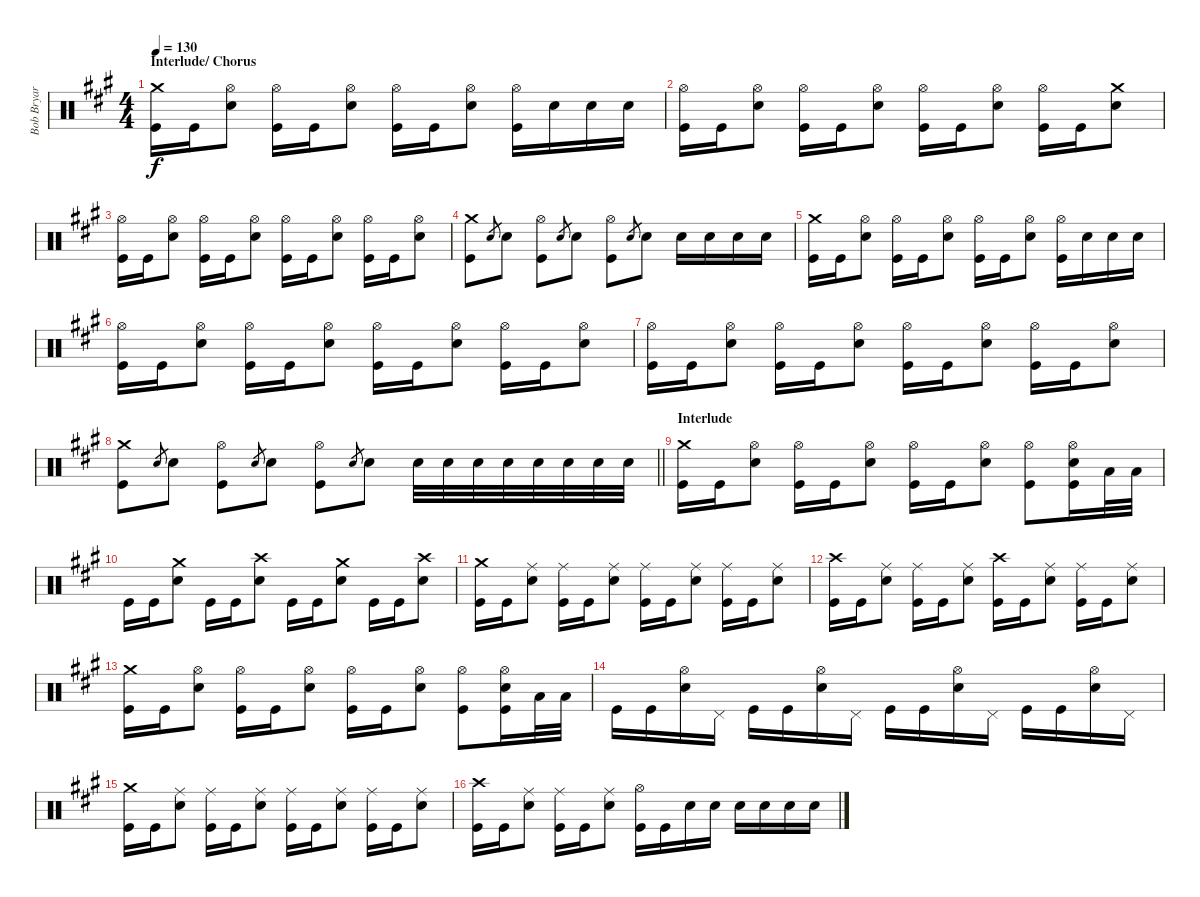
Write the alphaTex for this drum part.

\track ("Bob Bryar" "Bob Bryar") {instrument percussion}
\staff {score}
\articulation defaults
\ts (4 4)
\section ("" "Interlude/ Chorus")
\tempo 130
\clef neutral
\ks a
("Crash medium (hit)" "Kick (hit)").16{dy f} "Kick (hit)".16 ("Hi-Hat (open)" "Snare (hit) 2").8 ("Hi-Hat (open)" "Kick (hit)").16 "Kick (hit)".16 ("Hi-Hat (open)" "Snare (hit) 2").8 ("Hi-Hat (open)" "Kick (hit)").16 "Kick (hit)".16 ("Hi-Hat (open)" "Snare (hit) 2").8 ("Hi-Hat (open)" "Kick (hit)").16 "Snare (hit) 2".16 "Snare (hit) 2".16 "Snare (hit) 2".16 |
("Hi-Hat (open)" "Kick (hit)").16 "Kick (hit)".16 ("Hi-Hat (open)" "Snare (hit) 2").8 ("Hi-Hat (open)" "Kick (hit)").16 "Kick (hit)".16 ("Hi-Hat (open)" "Snare (hit) 2").8 ("Hi-Hat (open)" "Kick (hit)").16 "Kick (hit)".16 ("Hi-Hat (open)" "Snare (hit) 2").8 ("Hi-Hat (open)" "Kick (hit)").16 "Kick (hit)".16 ("Crash medium (hit)" "Snare (hit) 2").8 |
("Hi-Hat (open)" "Kick (hit)").16 "Kick (hit)".16 ("Hi-Hat (open)" "Snare (hit) 2").8 ("Hi-Hat (open)" "Kick (hit)").16 "Kick (hit)".16 ("Hi-Hat (open)" "Snare (hit) 2").8 ("Hi-Hat (open)" "Kick (hit)").16 "Kick (hit)".16 ("Hi-Hat (open)" "Snare (hit) 2").8 ("Hi-Hat (open)" "Kick (hit)").16 "Kick (hit)".16 ("Hi-Hat (open)" "Snare (hit) 2").8 |
("Crash medium (hit)" "Kick (hit)").8 "Snare (hit) 2".8{gr} "Snare (hit) 2".8 ("Hi-Hat (open)" "Kick (hit)").8 "Snare (hit) 2".8{gr} "Snare (hit) 2".8 ("Hi-Hat (open)" "Kick (hit)").8 "Snare (hit) 2".8{gr} "Snare (hit) 2".8 "Snare (hit) 2".16 "Snare (hit) 2".16 "Snare (hit) 2".16 "Snare (hit) 2".16 |
("Crash medium (hit)" "Kick (hit)").16 "Kick (hit)".16 ("Hi-Hat (open)" "Snare (hit) 2").8 ("Hi-Hat (open)" "Kick (hit)").16 "Kick (hit)".16 ("Hi-Hat (open)" "Snare (hit) 2").8 ("Hi-Hat (open)" "Kick (hit)").16 "Kick (hit)".16 ("Hi-Hat (open)" "Snare (hit) 2").8 ("Hi-Hat (open)" "Kick (hit)").16 "Snare (hit) 2".16 "Snare (hit) 2".16 "Snare (hit) 2".16 |
("Hi-Hat (open)" "Kick (hit)").16 "Kick (hit)".16 ("Hi-Hat (open)" "Snare (hit) 2").8 ("Hi-Hat (open)" "Kick (hit)").16 "Kick (hit)".16 ("Hi-Hat (open)" "Snare (hit) 2").8 ("Hi-Hat (open)" "Kick (hit)").16 "Kick (hit)".16 ("Hi-Hat (open)" "Snare (hit) 2").8 ("Hi-Hat (open)" "Kick (hit)").16 "Kick (hit)".16 ("Hi-Hat (open)" "Snare (hit) 2").8 |
("Hi-Hat (open)" "Kick (hit)").16 "Kick (hit)".16 ("Hi-Hat (open)" "Snare (hit) 2").8 ("Hi-Hat (open)" "Kick (hit)").16 "Kick (hit)".16 ("Hi-Hat (open)" "Snare (hit) 2").8 ("Hi-Hat (open)" "Kick (hit)").16 "Kick (hit)".16 ("Hi-Hat (open)" "Snare (hit) 2").8 ("Hi-Hat (open)" "Kick (hit)").16 "Kick (hit)".16 ("Hi-Hat (open)" "Snare (hit) 2").8 |
\barLineRight lightlight
("Crash medium (hit)" "Kick (hit)").8 "Snare (hit) 2".8{gr} "Snare (hit) 2".8 ("Hi-Hat (open)" "Kick (hit)").8 "Snare (hit) 2".8{gr} "Snare (hit) 2".8 ("Hi-Hat (open)" "Kick (hit)").8 "Snare (hit) 2".8{gr} "Snare (hit) 2".8 "Snare (hit) 2".32 "Snare (hit) 2".32 "Snare (hit) 2".32 "Snare (hit) 2".32 "Snare (hit) 2".32 "Snare (hit) 2".32 "Snare (hit) 2".32 "Snare (hit) 2".32 |
\section ("" "Interlude")
("Crash medium (hit)" "Kick (hit)").16 "Kick (hit)".16 ("Hi-Hat (open)" "Snare (hit) 2").8 ("Hi-Hat (open)" "Kick (hit)").16 "Kick (hit)".16 ("Hi-Hat (open)" "Snare (hit) 2").8 ("Hi-Hat (open)" "Kick (hit)").16 "Kick (hit)".16 ("Hi-Hat (open)" "Snare (hit) 2").8 ("Hi-Hat (open)" "Kick (hit)").8 ("Hi-Hat (open)" "Snare (hit) 2" "Kick (hit)").16 "Low Tom (hit)".32 "Low Tom (hit)".32 |
"Kick (hit)".16 "Kick (hit)".16 ("Crash medium (hit)" "Snare (hit) 2").8 "Kick (hit)".16 "Kick (hit)".16 ("Crash high (hit)" "Snare (hit) 2").8 "Kick (hit)".16 "Kick (hit)".16 ("Crash medium (hit)" "Snare (hit) 2").8 "Kick (hit)".16 "Kick (hit)".16 ("Crash high (hit)" "Snare (hit) 2").8 |
("Crash medium (hit)" "Kick (hit)").16 "Kick (hit)".16 ("Ride (middle)" "Snare (hit) 2").8 ("Ride (middle)" "Kick (hit)").16 "Kick (hit)".16 ("Ride (middle)" "Snare (hit) 2").8 ("Ride (middle)" "Kick (hit)").16 "Kick (hit)".16 ("Ride (middle)" "Snare (hit) 2").8 ("Ride (middle)" "Kick (hit)").16 "Kick (hit)".16 ("Ride (middle)" "Snare (hit) 2").8 |
("Crash high (hit)" "Kick (hit)").16 "Kick (hit)".16 ("Ride (middle)" "Snare (hit) 2").8 ("Ride (middle)" "Kick (hit)").16 "Kick (hit)".16 ("Ride (middle)" "Snare (hit) 2").8 ("Crash high (hit)" "Kick (hit)").16 "Kick (hit)".16 ("Ride (middle)" "Snare (hit) 2").8 ("Ride (middle)" "Kick (hit)").16 "Kick (hit)".16 ("Ride (middle)" "Snare (hit) 2").8 |
("Crash medium (hit)" "Kick (hit)").16 "Kick (hit)".16 ("Hi-Hat (open)" "Snare (hit) 2").8 ("Hi-Hat (open)" "Kick (hit)").16 "Kick (hit)".16 ("Hi-Hat (open)" "Snare (hit) 2").8 ("Hi-Hat (open)" "Kick (hit)").16 "Kick (hit)".16 ("Hi-Hat (open)" "Snare (hit) 2").8 ("Hi-Hat (open)" "Kick (hit)").8 ("Hi-Hat (open)" "Snare (hit) 2" "Kick (hit)").16 "Low Tom (hit)".32 "Low Tom (hit)".32 |
"Kick (hit)".16 "Kick (hit)".16 ("Hi-Hat (open)" "Snare (hit) 2").16 "Pedal Hi-Hat (hit)".16 "Kick (hit)".16 "Kick (hit)".16 ("Hi-Hat (open)" "Snare (hit) 2").16 "Pedal Hi-Hat (hit)".16 "Kick (hit)".16 "Kick (hit)".16 ("Hi-Hat (open)" "Snare (hit) 2").16 "Pedal Hi-Hat (hit)".16 "Kick (hit)".16 "Kick (hit)".16 ("Hi-Hat (open)" "Snare (hit) 2").16 "Pedal Hi-Hat (hit)".16 |
("Crash medium (hit)" "Kick (hit)").16 "Kick (hit)".16 ("Ride (middle)" "Snare (hit) 2").8 ("Ride (middle)" "Kick (hit)").16 "Kick (hit)".16 ("Ride (middle)" "Snare (hit) 2").8 ("Ride (middle)" "Kick (hit)").16 "Kick (hit)".16 ("Ride (middle)" "Snare (hit) 2").8 ("Ride (middle)" "Kick (hit)").16 "Kick (hit)".16 ("Ride (middle)" "Snare (hit) 2").8 |
("Crash high (hit)" "Kick (hit)").16 "Kick (hit)".16 ("Ride (middle)" "Snare (hit) 2").8 ("Ride (middle)" "Kick (hit)").16 "Kick (hit)".16 ("Ride (middle)" "Snare (hit) 2").8 ("Hi-Hat (open)" "Kick (hit)").16 "Kick (hit)".16 "Snare (hit) 2".16 "Snare (hit) 2".16 "Snare (hit) 2".16 "Snare (hit) 2".16 "Snare (hit) 2".16 "Snare (hit) 2".16
